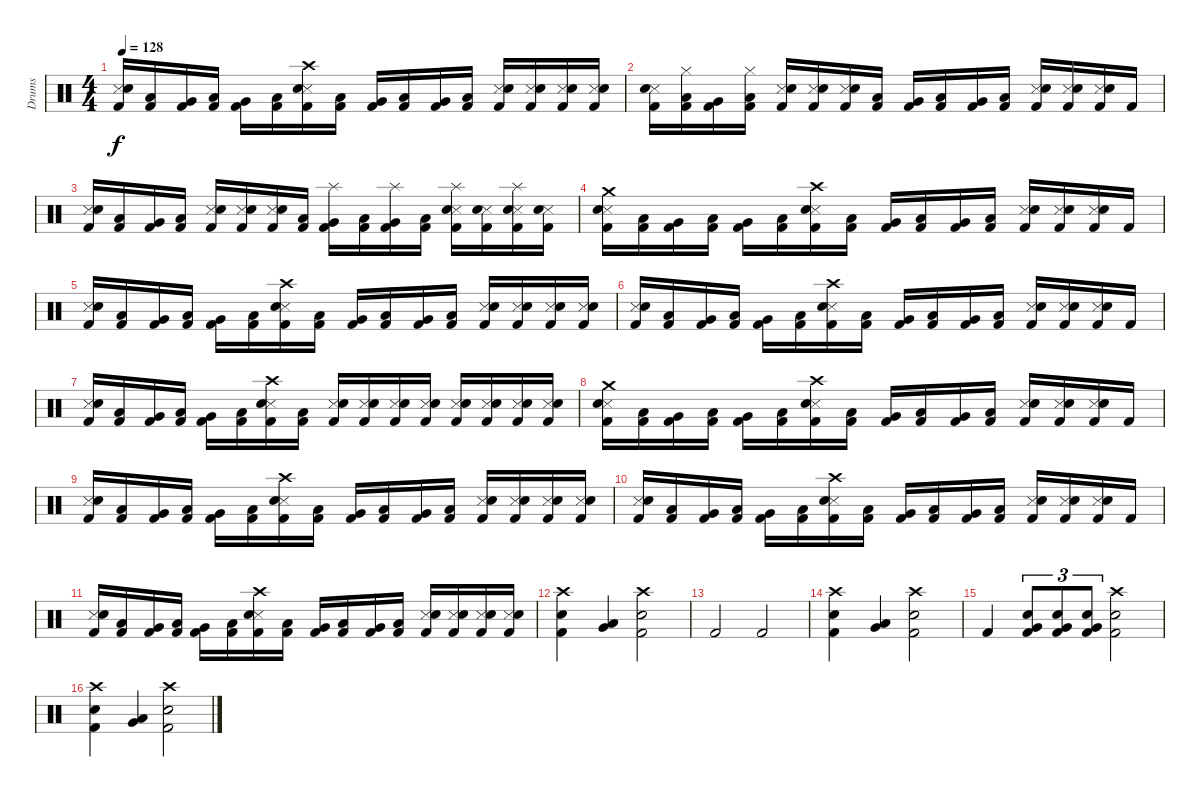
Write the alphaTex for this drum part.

\track ("Drums" "Drums") {instrument percussion}
\staff {score}
\articulation defaults
\ts (4 4)
\tempo 128
\clef neutral
\ks c
("Snare (side stick) 3" "Electric Snare (hit)" "Kick (hit) 2").16{dy f} ("Low Floor Tom (hit)" "Kick (hit) 2").16 ("Very Low Tom (hit)" "Kick (hit) 2").16 ("Low Floor Tom (hit)" "Kick (hit) 2").16 ("Very Low Tom (hit)" "Kick (hit) 2").16 ("Low Floor Tom (hit)" "Kick (hit) 2").16 ("Crash high (hit)" "Snare (side stick) 3" "Electric Snare (hit)" "Kick (hit) 2").16 ("Low Floor Tom (hit)" "Kick (hit) 2").16 ("Very Low Tom (hit)" "Kick (hit) 2").16 ("Low Floor Tom (hit)" "Kick (hit) 2").16 ("Very Low Tom (hit)" "Kick (hit) 2").16 ("Low Floor Tom (hit)" "Kick (hit) 2").16 ("Snare (side stick) 3" "Electric Snare (hit)" "Kick (hit) 2").16 ("Snare (side stick) 3" "Electric Snare (hit)" "Kick (hit) 2").16 ("Snare (side stick) 3" "Electric Snare (hit)" "Kick (hit) 2").16 ("Snare (side stick) 3" "Electric Snare (hit)" "Kick (hit) 2").16 |
("Snare (side stick) 3" "Electric Snare (hit)" "Kick (hit) 2").16 ("Hi-Hat (closed)" "Low Floor Tom (hit)" "Kick (hit) 2").16 ("Very Low Tom (hit)" "Kick (hit) 2").16 ("Hi-Hat (closed)" "Low Floor Tom (hit)" "Kick (hit) 2").16 ("Snare (side stick) 3" "Electric Snare (hit)" "Kick (hit) 2").16 ("Snare (side stick) 3" "Electric Snare (hit)" "Kick (hit) 2").16 ("Snare (side stick) 3" "Electric Snare (hit)" "Kick (hit) 2").16 ("Low Floor Tom (hit)" "Kick (hit) 2").16 ("Very Low Tom (hit)" "Kick (hit) 2").16 ("Low Floor Tom (hit)" "Kick (hit) 2").16 ("Very Low Tom (hit)" "Kick (hit) 2").16 ("Low Floor Tom (hit)" "Kick (hit) 2").16 ("Snare (side stick) 3" "Electric Snare (hit)" "Kick (hit) 2").16 ("Snare (side stick) 3" "Electric Snare (hit)" "Kick (hit) 2").16 ("Snare (side stick) 3" "Electric Snare (hit)" "Kick (hit) 2").16 "Kick (hit) 2".16 |
("Snare (side stick) 3" "Electric Snare (hit)" "Kick (hit) 2").16 ("Low Floor Tom (hit)" "Kick (hit) 2").16 ("Very Low Tom (hit)" "Kick (hit) 2").16 ("Low Floor Tom (hit)" "Kick (hit) 2").16 ("Snare (side stick) 3" "Electric Snare (hit)" "Kick (hit) 2").16 ("Snare (side stick) 3" "Electric Snare (hit)" "Kick (hit) 2").16 ("Snare (side stick) 3" "Electric Snare (hit)" "Kick (hit) 2").16 ("Low Floor Tom (hit)" "Kick (hit) 2").16 ("Splash (hit)" "Very Low Tom (hit)" "Kick (hit) 2").16 ("Low Floor Tom (hit)" "Kick (hit) 2").16 ("Splash (hit)" "Very Low Tom (hit)" "Kick (hit) 2").16 ("Low Floor Tom (hit)" "Kick (hit) 2").16 ("Splash (hit)" "Snare (side stick) 3" "Electric Snare (hit)" "Kick (hit) 2").16 ("Snare (side stick) 3" "Electric Snare (hit)" "Kick (hit) 2").16 ("Splash (hit)" "Snare (side stick) 3" "Electric Snare (hit)" "Kick (hit) 2").16 ("Snare (side stick) 3" "Electric Snare (hit)" "Kick (hit) 2").16 |
("Crash medium (hit)" "Snare (side stick) 3" "Electric Snare (hit)" "Kick (hit) 2").16 ("Low Floor Tom (hit)" "Kick (hit) 2").16 ("Very Low Tom (hit)" "Kick (hit) 2").16 ("Low Floor Tom (hit)" "Kick (hit) 2").16 ("Very Low Tom (hit)" "Kick (hit) 2").16 ("Low Floor Tom (hit)" "Kick (hit) 2").16 ("Crash high (hit)" "Snare (side stick) 3" "Electric Snare (hit)" "Kick (hit) 2").16 ("Low Floor Tom (hit)" "Kick (hit) 2").16 ("Very Low Tom (hit)" "Kick (hit) 2").16 ("Low Floor Tom (hit)" "Kick (hit) 2").16 ("Very Low Tom (hit)" "Kick (hit) 2").16 ("Low Floor Tom (hit)" "Kick (hit) 2").16 ("Snare (side stick) 3" "Electric Snare (hit)" "Kick (hit) 2").16 ("Snare (side stick) 3" "Electric Snare (hit)" "Kick (hit) 2").16 ("Snare (side stick) 3" "Electric Snare (hit)" "Kick (hit) 2").16 "Kick (hit) 2".16 |
("Snare (side stick) 3" "Electric Snare (hit)" "Kick (hit) 2").16 ("Low Floor Tom (hit)" "Kick (hit) 2").16 ("Very Low Tom (hit)" "Kick (hit) 2").16 ("Low Floor Tom (hit)" "Kick (hit) 2").16 ("Very Low Tom (hit)" "Kick (hit) 2").16 ("Low Floor Tom (hit)" "Kick (hit) 2").16 ("Crash high (hit)" "Snare (side stick) 3" "Electric Snare (hit)" "Kick (hit) 2").16 ("Low Floor Tom (hit)" "Kick (hit) 2").16 ("Very Low Tom (hit)" "Kick (hit) 2").16 ("Low Floor Tom (hit)" "Kick (hit) 2").16 ("Very Low Tom (hit)" "Kick (hit) 2").16 ("Low Floor Tom (hit)" "Kick (hit) 2").16 ("Snare (side stick) 3" "Electric Snare (hit)" "Kick (hit) 2").16 ("Snare (side stick) 3" "Electric Snare (hit)" "Kick (hit) 2").16 ("Snare (side stick) 3" "Electric Snare (hit)" "Kick (hit) 2").16 ("Snare (side stick) 3" "Electric Snare (hit)" "Kick (hit) 2").16 |
("Snare (side stick) 3" "Electric Snare (hit)" "Kick (hit) 2").16 ("Low Floor Tom (hit)" "Kick (hit) 2").16 ("Very Low Tom (hit)" "Kick (hit) 2").16 ("Low Floor Tom (hit)" "Kick (hit) 2").16 ("Very Low Tom (hit)" "Kick (hit) 2").16 ("Low Floor Tom (hit)" "Kick (hit) 2").16 ("Crash high (hit)" "Snare (side stick) 3" "Electric Snare (hit)" "Kick (hit) 2").16 ("Low Floor Tom (hit)" "Kick (hit) 2").16 ("Very Low Tom (hit)" "Kick (hit) 2").16 ("Low Floor Tom (hit)" "Kick (hit) 2").16 ("Very Low Tom (hit)" "Kick (hit) 2").16 ("Low Floor Tom (hit)" "Kick (hit) 2").16 ("Snare (side stick) 3" "Electric Snare (hit)" "Kick (hit) 2").16 ("Snare (side stick) 3" "Electric Snare (hit)" "Kick (hit) 2").16 ("Snare (side stick) 3" "Electric Snare (hit)" "Kick (hit) 2").16 "Kick (hit) 2".16 |
("Snare (side stick) 3" "Electric Snare (hit)" "Kick (hit) 2").16 ("Low Floor Tom (hit)" "Kick (hit) 2").16 ("Very Low Tom (hit)" "Kick (hit) 2").16 ("Low Floor Tom (hit)" "Kick (hit) 2").16 ("Very Low Tom (hit)" "Kick (hit) 2").16 ("Low Floor Tom (hit)" "Kick (hit) 2").16 ("Crash high (hit)" "Snare (side stick) 3" "Electric Snare (hit)" "Kick (hit) 2").16 ("Low Floor Tom (hit)" "Kick (hit) 2").16 ("Snare (side stick) 3" "Electric Snare (hit)" "Kick (hit) 2").16 ("Snare (side stick) 3" "Electric Snare (hit)" "Kick (hit) 2").16 ("Snare (side stick) 3" "Electric Snare (hit)" "Kick (hit) 2").16 ("Snare (side stick) 3" "Electric Snare (hit)" "Kick (hit) 2").16 ("Snare (side stick) 3" "Electric Snare (hit)" "Kick (hit) 2").16 ("Snare (side stick) 3" "Electric Snare (hit)" "Kick (hit) 2").16 ("Snare (side stick) 3" "Electric Snare (hit)" "Kick (hit) 2").16 ("Snare (side stick) 3" "Electric Snare (hit)" "Kick (hit) 2").16 |
("Crash medium (hit)" "Snare (side stick) 3" "Electric Snare (hit)" "Kick (hit) 2").16 ("Low Floor Tom (hit)" "Kick (hit) 2").16 ("Very Low Tom (hit)" "Kick (hit) 2").16 ("Low Floor Tom (hit)" "Kick (hit) 2").16 ("Very Low Tom (hit)" "Kick (hit) 2").16 ("Low Floor Tom (hit)" "Kick (hit) 2").16 ("Crash high (hit)" "Snare (side stick) 3" "Electric Snare (hit)" "Kick (hit) 2").16 ("Low Floor Tom (hit)" "Kick (hit) 2").16 ("Very Low Tom (hit)" "Kick (hit) 2").16 ("Low Floor Tom (hit)" "Kick (hit) 2").16 ("Very Low Tom (hit)" "Kick (hit) 2").16 ("Low Floor Tom (hit)" "Kick (hit) 2").16 ("Snare (side stick) 3" "Electric Snare (hit)" "Kick (hit) 2").16 ("Snare (side stick) 3" "Electric Snare (hit)" "Kick (hit) 2").16 ("Snare (side stick) 3" "Electric Snare (hit)" "Kick (hit) 2").16 "Kick (hit) 2".16 |
("Snare (side stick) 3" "Electric Snare (hit)" "Kick (hit) 2").16 ("Low Floor Tom (hit)" "Kick (hit) 2").16 ("Very Low Tom (hit)" "Kick (hit) 2").16 ("Low Floor Tom (hit)" "Kick (hit) 2").16 ("Very Low Tom (hit)" "Kick (hit) 2").16 ("Low Floor Tom (hit)" "Kick (hit) 2").16 ("Crash high (hit)" "Snare (side stick) 3" "Electric Snare (hit)" "Kick (hit) 2").16 ("Low Floor Tom (hit)" "Kick (hit) 2").16 ("Very Low Tom (hit)" "Kick (hit) 2").16 ("Low Floor Tom (hit)" "Kick (hit) 2").16 ("Very Low Tom (hit)" "Kick (hit) 2").16 ("Low Floor Tom (hit)" "Kick (hit) 2").16 ("Snare (side stick) 3" "Electric Snare (hit)" "Kick (hit) 2").16 ("Snare (side stick) 3" "Electric Snare (hit)" "Kick (hit) 2").16 ("Snare (side stick) 3" "Electric Snare (hit)" "Kick (hit) 2").16 ("Snare (side stick) 3" "Electric Snare (hit)" "Kick (hit) 2").16 |
("Snare (side stick) 3" "Electric Snare (hit)" "Kick (hit) 2").16 ("Low Floor Tom (hit)" "Kick (hit) 2").16 ("Very Low Tom (hit)" "Kick (hit) 2").16 ("Low Floor Tom (hit)" "Kick (hit) 2").16 ("Very Low Tom (hit)" "Kick (hit) 2").16 ("Low Floor Tom (hit)" "Kick (hit) 2").16 ("Crash high (hit)" "Snare (side stick) 3" "Electric Snare (hit)" "Kick (hit) 2").16 ("Low Floor Tom (hit)" "Kick (hit) 2").16 ("Very Low Tom (hit)" "Kick (hit) 2").16 ("Low Floor Tom (hit)" "Kick (hit) 2").16 ("Very Low Tom (hit)" "Kick (hit) 2").16 ("Low Floor Tom (hit)" "Kick (hit) 2").16 ("Snare (side stick) 3" "Electric Snare (hit)" "Kick (hit) 2").16 ("Snare (side stick) 3" "Electric Snare (hit)" "Kick (hit) 2").16 ("Snare (side stick) 3" "Electric Snare (hit)" "Kick (hit) 2").16 "Kick (hit) 2".16 |
("Snare (side stick) 3" "Electric Snare (hit)" "Kick (hit) 2").16 ("Low Floor Tom (hit)" "Kick (hit) 2").16 ("Very Low Tom (hit)" "Kick (hit) 2").16 ("Low Floor Tom (hit)" "Kick (hit) 2").16 ("Very Low Tom (hit)" "Kick (hit) 2").16 ("Low Floor Tom (hit)" "Kick (hit) 2").16 ("Crash high (hit)" "Snare (side stick) 3" "Electric Snare (hit)" "Kick (hit) 2").16 ("Low Floor Tom (hit)" "Kick (hit) 2").16 ("Very Low Tom (hit)" "Kick (hit) 2").16 ("Low Floor Tom (hit)" "Kick (hit) 2").16 ("Very Low Tom (hit)" "Kick (hit) 2").16 ("Low Floor Tom (hit)" "Kick (hit) 2").16 ("Snare (side stick) 3" "Electric Snare (hit)" "Kick (hit) 2").16 ("Snare (side stick) 3" "Electric Snare (hit)" "Kick (hit) 2").16 ("Snare (side stick) 3" "Electric Snare (hit)" "Kick (hit) 2").16 ("Snare (side stick) 3" "Electric Snare (hit)" "Kick (hit) 2").16 |
("Crash high (hit)" "Electric Snare (hit)" "Kick (hit) 2").4 ("Very Low Tom (hit)" "Low Floor Tom (hit)").4 ("Crash high (hit)" "Electric Snare (hit)" "Kick (hit) 2").2 |
"Kick (hit) 2".2 "Kick (hit) 2".2 |
("Crash high (hit)" "Electric Snare (hit)" "Kick (hit) 2").4 ("Very Low Tom (hit)" "Low Floor Tom (hit)").4 ("Crash high (hit)" "Electric Snare (hit)" "Kick (hit) 2").2 |
"Kick (hit) 2".4 ("Very Low Tom (hit)" "Electric Snare (hit)" "Kick (hit) 2").8{tu (3 2)} ("Very Low Tom (hit)" "Electric Snare (hit)" "Kick (hit) 2").8{tu (3 2)} ("Very Low Tom (hit)" "Electric Snare (hit)" "Kick (hit) 2").8{tu (3 2)} ("Crash high (hit)" "Electric Snare (hit)" "Kick (hit) 2").2 |
("Crash high (hit)" "Electric Snare (hit)" "Kick (hit) 2").4 ("Very Low Tom (hit)" "Low Floor Tom (hit)").4 ("Crash high (hit)" "Electric Snare (hit)" "Kick (hit) 2").2
